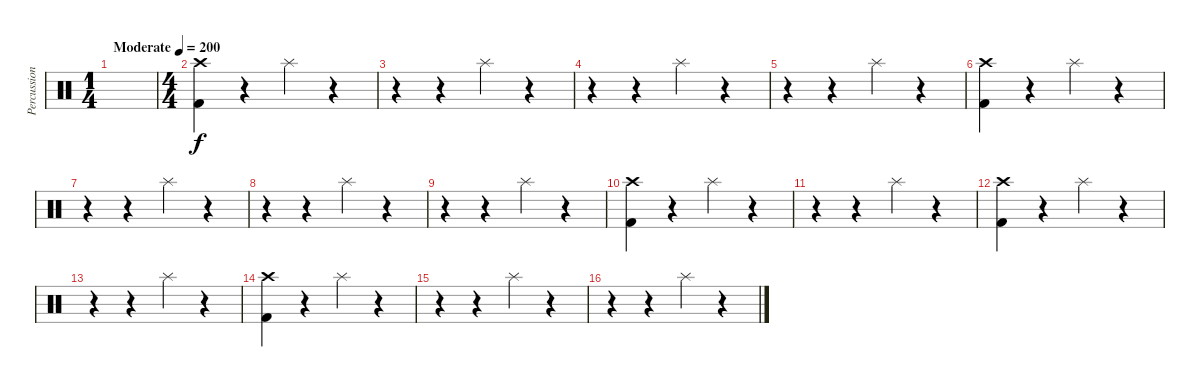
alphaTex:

\track ("Percussion" "Percussion") {instrument percussion}
\staff {score}
\articulation defaults
\ts (1 4)
\tempo (200 "Moderate")
\clef neutral
\ks c
|
\ts (4 4)
("Crash high (hit)" "Kick (hit) 2").4 r.4 "Splash (hit)".4 r.4 |
r.4 r.4 "Splash (hit)".4 r.4 |
r.4 r.4 "Splash (hit)".4 r.4 |
r.4 r.4 "Splash (hit)".4 r.4 |
("Crash high (hit)" "Kick (hit) 2").4 r.4 "Splash (hit)".4 r.4 |
r.4 r.4 "Splash (hit)".4 r.4 |
r.4 r.4 "Splash (hit)".4 r.4 |
r.4 r.4 "Splash (hit)".4 r.4 |
("Crash high (hit)" "Kick (hit) 2").4 r.4 "Splash (hit)".4 r.4 |
r.4 r.4 "Splash (hit)".4 r.4 |
("Crash high (hit)" "Kick (hit) 2").4 r.4 "Splash (hit)".4 r.4 |
r.4 r.4 "Splash (hit)".4 r.4 |
("Crash high (hit)" "Kick (hit) 2").4 r.4 "Splash (hit)".4 r.4 |
r.4 r.4 "Splash (hit)".4 r.4 |
r.4 r.4 "Splash (hit)".4 r.4
